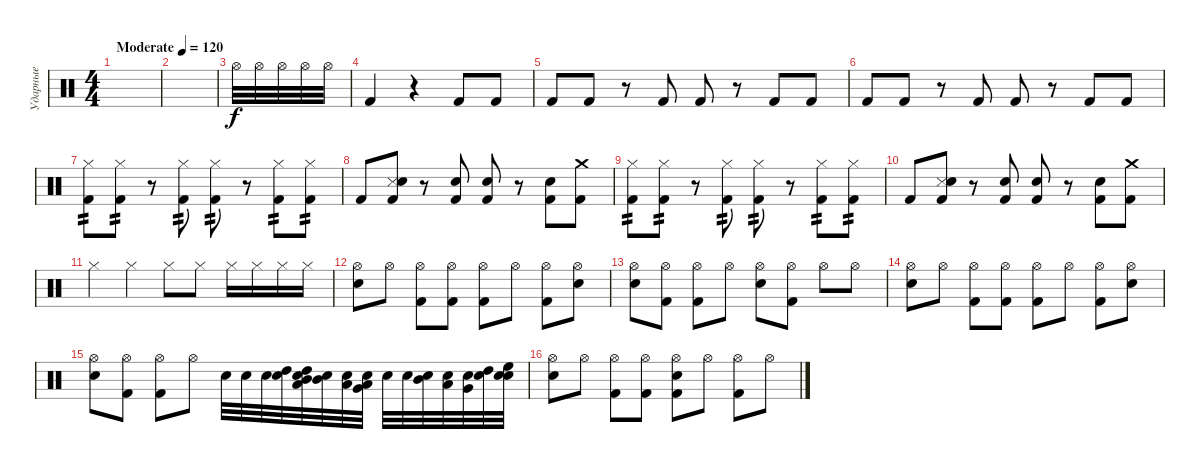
\track ("Ударные" "Ударные") {instrument percussion}
\staff {score}
\articulation defaults
\ts (4 4)
\tempo (120 "Moderate")
\clef neutral
\ks c
|
|
"Hi-Hat (open)".32 "Hi-Hat (open)".32 "Hi-Hat (open)".32 "Hi-Hat (open)".32 "Hi-Hat (open)".32 |
"Kick (hit) 2".4 r.4 "Kick (hit) 2".8 "Kick (hit) 2".8 |
"Kick (hit) 2".8 "Kick (hit) 2".8 r.8 "Kick (hit) 2".8 "Kick (hit) 2".8 r.8 "Kick (hit) 2".8 "Kick (hit) 2".8 |
"Kick (hit) 2".8 "Kick (hit) 2".8 r.8 "Kick (hit) 2".8 "Kick (hit) 2".8 r.8 "Kick (hit) 2".8 "Kick (hit) 2".8 |
("Kick (hit) 2" "Hi-Hat (closed)").8{tp 2} ("Kick (hit) 2" "Hi-Hat (closed)").8{tp 2} r.8 ("Kick (hit) 2" "Hi-Hat (closed)").8{tp 2} ("Kick (hit) 2" "Hi-Hat (closed)").8{tp 2} r.8 ("Kick (hit) 2" "Hi-Hat (closed)").8{tp 2} ("Kick (hit) 2" "Hi-Hat (closed)").8{tp 2} |
"Kick (hit) 2".8 ("Kick (hit) 2" "Snare (side stick) 3" "Snare (hit) 2").8 r.8 ("Kick (hit) 2" "Snare (hit) 2").8 ("Kick (hit) 2" "Snare (hit) 2").8 r.8 ("Kick (hit) 2" "Snare (hit) 2").8 ("Kick (hit) 2" "Crash medium (hit)").8 |
("Kick (hit) 2" "Hi-Hat (closed)").8{tp 2} ("Kick (hit) 2" "Hi-Hat (closed)").8{tp 2} r.8 ("Kick (hit) 2" "Hi-Hat (closed)").8{tp 2} ("Kick (hit) 2" "Hi-Hat (closed)").8{tp 2} r.8 ("Kick (hit) 2" "Hi-Hat (closed)").8{tp 2} ("Kick (hit) 2" "Hi-Hat (closed)").8{tp 2} |
"Kick (hit) 2".8 ("Kick (hit) 2" "Snare (side stick) 3" "Snare (hit) 2").8 r.8 ("Kick (hit) 2" "Snare (hit) 2").8 ("Kick (hit) 2" "Snare (hit) 2").8 r.8 ("Kick (hit) 2" "Snare (hit) 2").8 ("Kick (hit) 2" "Crash medium (hit)").8 |
"Hi-Hat (closed)".4 "Hi-Hat (closed)".4 "Hi-Hat (closed)".8 "Hi-Hat (closed)".8 "Hi-Hat (closed)".16 "Hi-Hat (closed)".16 "Hi-Hat (closed)".16 "Hi-Hat (closed)".16 |
("Hi-Hat (open)" "Snare (hit) 2").8 "Hi-Hat (open)".8 ("Hi-Hat (open)" "Kick (hit) 2").8 ("Hi-Hat (open)" "Kick (hit) 2").8 ("Hi-Hat (open)" "Kick (hit) 2").8 "Hi-Hat (open)".8 ("Hi-Hat (open)" "Kick (hit) 2").8 ("Hi-Hat (open)" "Snare (hit) 2").8 |
("Hi-Hat (open)" "Snare (hit) 2").8 ("Hi-Hat (open)" "Kick (hit) 2").8 ("Hi-Hat (open)" "Kick (hit) 2").8 "Hi-Hat (open)".8 ("Hi-Hat (open)" "Snare (hit) 2").8 ("Hi-Hat (open)" "Kick (hit) 2").8 "Hi-Hat (open)".8 "Hi-Hat (open)".8 |
("Hi-Hat (open)" "Snare (hit) 2").8 "Hi-Hat (open)".8 ("Hi-Hat (open)" "Kick (hit) 2").8 ("Hi-Hat (open)" "Kick (hit) 2").8 ("Hi-Hat (open)" "Kick (hit) 2").8 "Hi-Hat (open)".8 ("Hi-Hat (open)" "Kick (hit) 2").8 ("Hi-Hat (open)" "Snare (hit) 2").8 |
("Hi-Hat (open)" "Snare (hit) 2").8 ("Hi-Hat (open)" "Kick (hit) 2").8 ("Hi-Hat (open)" "Kick (hit) 2").8 "Hi-Hat (open)".8 "Snare (hit) 2".32 "Snare (hit) 2".32 "Snare (hit) 2".32 ("Snare (hit) 2" "High Tom (hit)").32 ("Snare (hit) 2" "High Tom (hit)" "Mid Tom (hit)" "Low Tom (hit)").32 ("Snare (hit) 2" "Mid Tom (hit)").32 ("Snare (hit) 2" "Low Tom (hit)").32 ("Snare (hit) 2" "Very Low Tom (hit)" "Low Floor Tom (hit)").32 "Snare (hit) 2".32 "Snare (hit) 2".32 ("Snare (hit) 2" "Mid Tom (hit)").32 ("Snare (hit) 2" "Low Tom (hit)").32 ("Snare (hit) 2" "Very Low Tom (hit)").32 ("Snare (hit) 2" "High Tom (hit)").32 ("Snare (hit) 2" "Snare (hit) 2" "High Floor Tom (hit)").32 |
("Hi-Hat (open)" "Snare (hit) 2").8 "Hi-Hat (open)".8 ("Hi-Hat (open)" "Kick (hit) 2").8 ("Hi-Hat (open)" "Kick (hit) 2").8 ("Hi-Hat (open)" "Kick (hit) 2" "Snare (hit) 2").8 "Hi-Hat (open)".8 ("Hi-Hat (open)" "Kick (hit) 2").8 "Hi-Hat (open)".8
